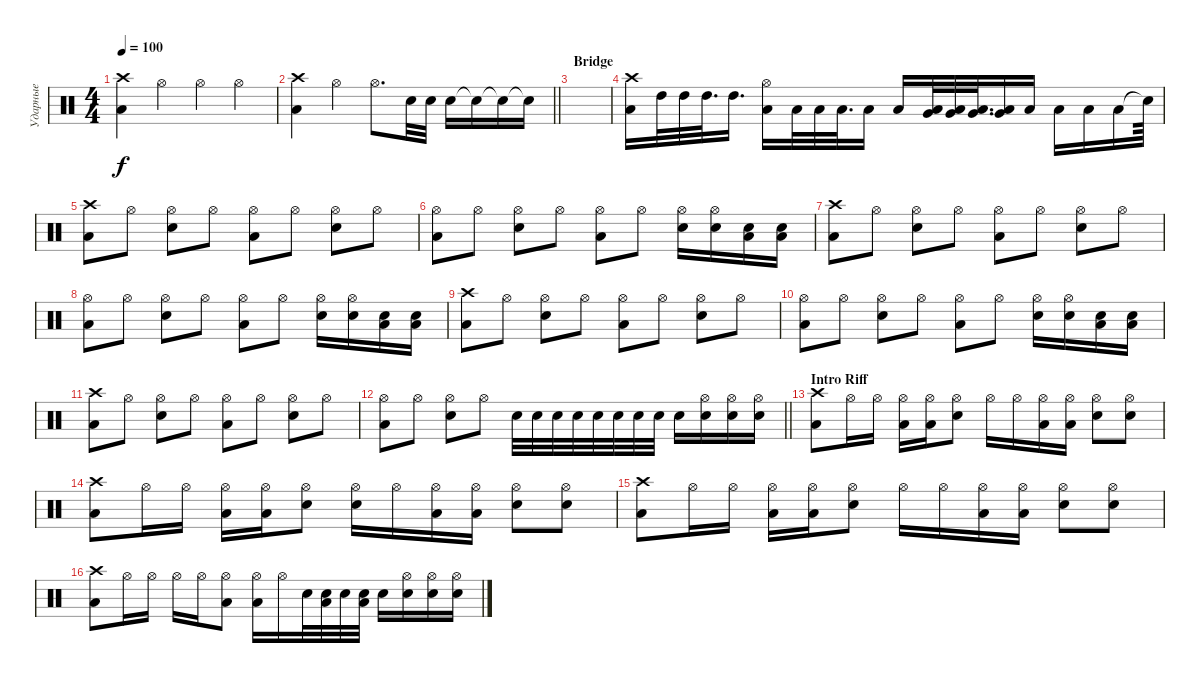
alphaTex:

\track ("Ударные" "Ударные") {instrument percussion}
\staff {score}
\articulation defaults
\ts (4 4)
\tempo 100
\clef neutral
\ks c
("Low Floor Tom (hit)" "Crash high (hit)").4{dy f} "Hi-Hat (open)".4 "Hi-Hat (open)".4 "Hi-Hat (open)".4 |
\barLineRight lightlight
("Low Floor Tom (hit)" "Crash high (hit)").4 "Hi-Hat (open)".4 "Hi-Hat (open)".8{d} "Snare (hit) 2".32 "Snare (hit) 2".32 "Snare (hit) 2".16 "Snare (hit)"{t}.16 "Snare (hit)"{t}.16 "Snare (hit)"{t}.16 |
\section ("" "Bridge")
|
("Low Floor Tom (hit)" "Crash high (hit)").16 "High Tom (hit)".32 "High Tom (hit)".32 "High Tom (hit)".32{d} "High Tom (hit)".16{d} ("Low Floor Tom (hit)" "Hi-Hat (open)").16 "Low Tom (hit)".32 "Low Tom (hit)".32 "Low Tom (hit)".32{d} "Low Tom (hit)".16 "Low Floor Tom (hit)".16 ("Low Floor Tom (hit)" "Very Low Tom (hit)").32 ("Low Floor Tom (hit)" "Very Low Tom (hit)").32 ("Low Floor Tom (hit)" "Very Low Tom (hit)").32{d} ("Low Floor Tom (hit)" "Very Low Tom (hit)").16 "Low Floor Tom (hit)".16 "Low Floor Tom (hit)".16 "Low Floor Tom (hit)".16 "Low Floor Tom (hit)".16 "Snare (hit)"{t}.64 |
("Low Floor Tom (hit)" "Crash high (hit)").8 "Hi-Hat (open)".8 ("Snare (hit) 2" "Hi-Hat (open)").8 "Hi-Hat (open)".8 ("Low Floor Tom (hit)" "Hi-Hat (open)").8 "Hi-Hat (open)".8 ("Snare (hit) 2" "Hi-Hat (open)").8 "Hi-Hat (open)".8 |
("Low Floor Tom (hit)" "Hi-Hat (open)").8 "Hi-Hat (open)".8 ("Snare (hit) 2" "Hi-Hat (open)").8 "Hi-Hat (open)".8 ("Low Floor Tom (hit)" "Hi-Hat (open)").8 "Hi-Hat (open)".8 ("Snare (hit) 2" "Hi-Hat (open)").16 ("Snare (hit) 2" "Hi-Hat (open)").16 ("Low Floor Tom (hit)" "Snare (hit) 2").16 ("Low Floor Tom (hit)" "Snare (hit) 2").16 |
("Low Floor Tom (hit)" "Crash high (hit)").8 "Hi-Hat (open)".8 ("Snare (hit) 2" "Hi-Hat (open)").8 "Hi-Hat (open)".8 ("Low Floor Tom (hit)" "Hi-Hat (open)").8 "Hi-Hat (open)".8 ("Snare (hit) 2" "Hi-Hat (open)").8 "Hi-Hat (open)".8 |
("Low Floor Tom (hit)" "Hi-Hat (open)").8 "Hi-Hat (open)".8 ("Snare (hit) 2" "Hi-Hat (open)").8 "Hi-Hat (open)".8 ("Low Floor Tom (hit)" "Hi-Hat (open)").8 "Hi-Hat (open)".8 ("Snare (hit) 2" "Hi-Hat (open)").16 ("Snare (hit) 2" "Hi-Hat (open)").16 ("Low Floor Tom (hit)" "Snare (hit) 2").16 ("Low Floor Tom (hit)" "Snare (hit) 2").16 |
("Low Floor Tom (hit)" "Crash high (hit)").8 "Hi-Hat (open)".8 ("Snare (hit) 2" "Hi-Hat (open)").8 "Hi-Hat (open)".8 ("Low Floor Tom (hit)" "Hi-Hat (open)").8 "Hi-Hat (open)".8 ("Snare (hit) 2" "Hi-Hat (open)").8 "Hi-Hat (open)".8 |
("Low Floor Tom (hit)" "Hi-Hat (open)").8 "Hi-Hat (open)".8 ("Snare (hit) 2" "Hi-Hat (open)").8 "Hi-Hat (open)".8 ("Low Floor Tom (hit)" "Hi-Hat (open)").8 "Hi-Hat (open)".8 ("Snare (hit) 2" "Hi-Hat (open)").16 ("Snare (hit) 2" "Hi-Hat (open)").16 ("Low Floor Tom (hit)" "Snare (hit) 2").16 ("Low Floor Tom (hit)" "Snare (hit) 2").16 |
("Low Floor Tom (hit)" "Crash high (hit)").8 "Hi-Hat (open)".8 ("Snare (hit) 2" "Hi-Hat (open)").8 "Hi-Hat (open)".8 ("Low Floor Tom (hit)" "Hi-Hat (open)").8 "Hi-Hat (open)".8 ("Snare (hit) 2" "Hi-Hat (open)").8 "Hi-Hat (open)".8 |
\barLineRight lightlight
("Low Floor Tom (hit)" "Hi-Hat (open)").8 "Hi-Hat (open)".8 ("Snare (hit) 2" "Hi-Hat (open)").8 "Hi-Hat (open)".8 "Snare (hit) 2".32 "Snare (hit) 2".32 "Snare (hit) 2".32 "Snare (hit) 2".32 "Snare (hit) 2".32 "Snare (hit) 2".32 "Snare (hit) 2".32 "Snare (hit) 2".32 "Snare (hit) 2".16 ("Snare (hit) 2" "Hi-Hat (open)").16 ("Snare (hit) 2" "Hi-Hat (open)").16 ("Snare (hit) 2" "Hi-Hat (open)").16 |
\section ("" "Intro Riff")
("Low Floor Tom (hit)" "Crash high (hit)").8 "Hi-Hat (open)".16 "Hi-Hat (open)".16 ("Low Floor Tom (hit)" "Hi-Hat (open)").16 ("Low Floor Tom (hit)" "Hi-Hat (open)").16 ("Snare (hit) 2" "Hi-Hat (open)").8 "Hi-Hat (open)".16 "Hi-Hat (open)".16 ("Low Floor Tom (hit)" "Hi-Hat (open)").16 ("Low Floor Tom (hit)" "Hi-Hat (open)").16 ("Snare (hit) 2" "Hi-Hat (open)").8 ("Snare (hit) 2" "Hi-Hat (open)").8 |
("Low Floor Tom (hit)" "Crash high (hit)").8 "Hi-Hat (open)".16 "Hi-Hat (open)".16 ("Low Floor Tom (hit)" "Hi-Hat (open)").16 ("Low Floor Tom (hit)" "Hi-Hat (open)").16 ("Snare (hit) 2" "Hi-Hat (open)").8 ("Snare (hit) 2" "Hi-Hat (open)").16 "Hi-Hat (open)".16 ("Low Floor Tom (hit)" "Hi-Hat (open)").16 ("Low Floor Tom (hit)" "Hi-Hat (open)").16 ("Snare (hit) 2" "Hi-Hat (open)").8 ("Snare (hit) 2" "Hi-Hat (open)").8 |
("Low Floor Tom (hit)" "Crash high (hit)").8 "Hi-Hat (open)".16 "Hi-Hat (open)".16 ("Low Floor Tom (hit)" "Hi-Hat (open)").16 ("Low Floor Tom (hit)" "Hi-Hat (open)").16 ("Snare (hit) 2" "Hi-Hat (open)").8 "Hi-Hat (open)".16 "Hi-Hat (open)".16 ("Low Floor Tom (hit)" "Hi-Hat (open)").16 ("Low Floor Tom (hit)" "Hi-Hat (open)").16 ("Snare (hit) 2" "Hi-Hat (open)").8 ("Snare (hit) 2" "Hi-Hat (open)").8 |
("Low Floor Tom (hit)" "Crash high (hit)").8 "Hi-Hat (open)".16 "Hi-Hat (open)".16 "Hi-Hat (open)".16 "Hi-Hat (open)".16 ("Low Floor Tom (hit)" "Hi-Hat (open)").8 ("Low Floor Tom (hit)" "Hi-Hat (open)").16 "Hi-Hat (open)".16 "Snare (hit) 2".32 ("Low Floor Tom (hit)" "Snare (hit) 2").32 "Snare (hit) 2".32 ("Low Floor Tom (hit)" "Snare (hit) 2").32 "Snare (hit) 2".16 ("Snare (hit) 2" "Hi-Hat (open)").16 ("Snare (hit) 2" "Hi-Hat (open)").16 ("Snare (hit) 2" "Hi-Hat (open)").16
